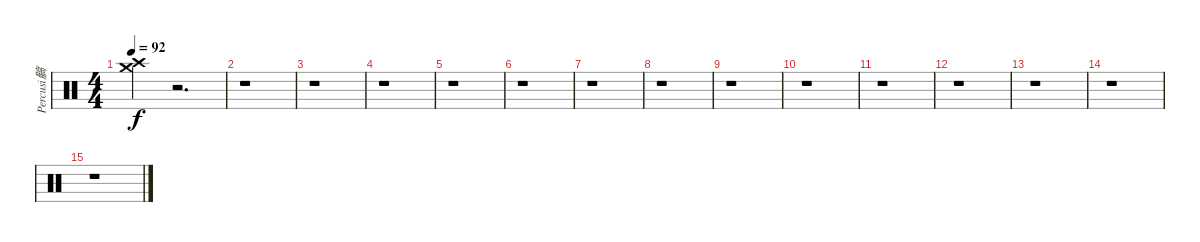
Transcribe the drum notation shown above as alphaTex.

\track ("Percusi髇" "Percusi髇") {instrument percussion}
\staff {score}
\articulation defaults
\ts (4 4)
\tempo 92
\clef neutral
\ks c
("Crash high (hit)" "Crash medium (hit)").4{dy f} r.2{d} |
r.1 |
r.1 |
r.1 |
r.1 |
r.1 |
r.1 |
r.1 |
r.1 |
r.1 |
r.1 |
r.1 |
r.1 |
r.1 |
r.1
